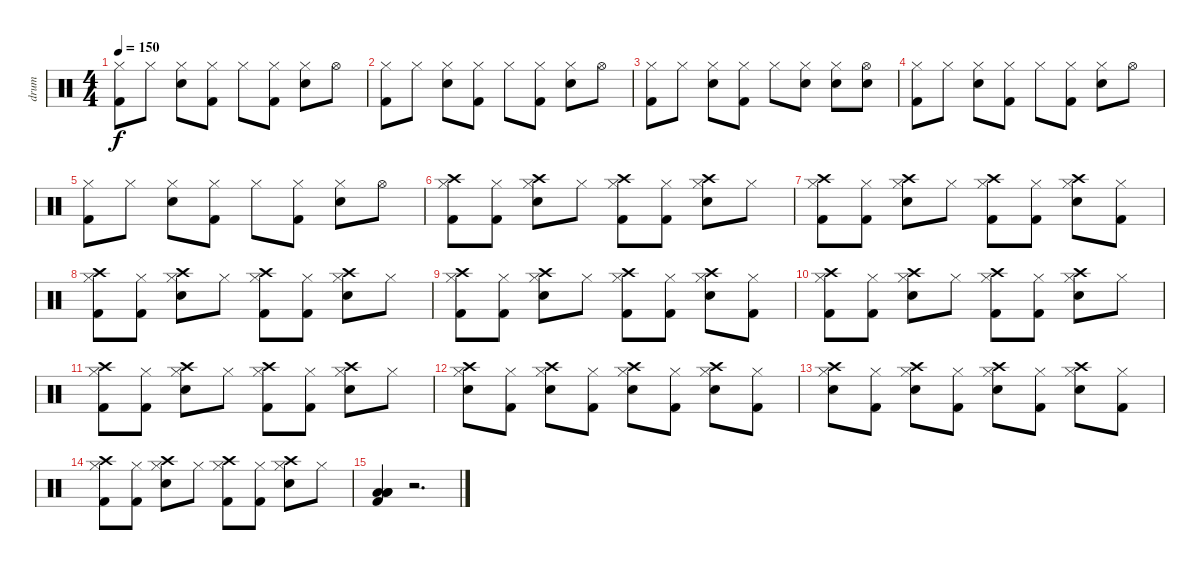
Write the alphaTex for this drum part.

\track ("drum" "drum") {instrument percussion}
\staff {score}
\articulation defaults
\ts (4 4)
\tempo 150
\clef neutral
\ks c
("Hi-Hat (closed)" "Kick (hit) 2").8{dy f} "Hi-Hat (closed)".8 ("Hi-Hat (closed)" "Electric Snare (hit)").8 ("Hi-Hat (closed)" "Kick (hit) 2").8 "Hi-Hat (closed)".8 ("Hi-Hat (closed)" "Kick (hit) 2").8 ("Hi-Hat (closed)" "Electric Snare (hit)").8 "Hi-Hat (open)".8 |
("Hi-Hat (closed)" "Kick (hit) 2").8 "Hi-Hat (closed)".8 ("Hi-Hat (closed)" "Electric Snare (hit)").8 ("Hi-Hat (closed)" "Kick (hit) 2").8 "Hi-Hat (closed)".8 ("Hi-Hat (closed)" "Kick (hit) 2").8 ("Hi-Hat (closed)" "Electric Snare (hit)").8 "Hi-Hat (open)".8 |
("Hi-Hat (closed)" "Kick (hit) 2").8 "Hi-Hat (closed)".8 ("Hi-Hat (closed)" "Electric Snare (hit)").8 ("Hi-Hat (closed)" "Kick (hit) 2").8 "Hi-Hat (closed)".8 ("Hi-Hat (closed)" "Electric Snare (hit)").8 ("Hi-Hat (closed)" "Electric Snare (hit)").8 ("Hi-Hat (open)" "Electric Snare (hit)").8 |
("Hi-Hat (closed)" "Kick (hit) 2").8 "Hi-Hat (closed)".8 ("Hi-Hat (closed)" "Electric Snare (hit)").8 ("Hi-Hat (closed)" "Kick (hit) 2").8 "Hi-Hat (closed)".8 ("Hi-Hat (closed)" "Kick (hit) 2").8 ("Hi-Hat (closed)" "Electric Snare (hit)").8 "Hi-Hat (open)".8 |
("Hi-Hat (closed)" "Kick (hit) 2").8 "Hi-Hat (closed)".8 ("Hi-Hat (closed)" "Electric Snare (hit)").8 ("Hi-Hat (closed)" "Kick (hit) 2").8 "Hi-Hat (closed)".8 ("Hi-Hat (closed)" "Kick (hit) 2").8 ("Hi-Hat (closed)" "Electric Snare (hit)").8 "Hi-Hat (open)".8 |
("Crash high (hit)" "Hi-Hat (closed)" "Kick (hit) 2").8 ("Hi-Hat (closed)" "Kick (hit) 2").8 ("Crash high (hit)" "Hi-Hat (closed)" "Electric Snare (hit)").8 "Hi-Hat (closed)".8 ("Crash high (hit)" "Hi-Hat (closed)" "Kick (hit) 2").8 ("Hi-Hat (closed)" "Kick (hit) 2").8 ("Crash high (hit)" "Hi-Hat (closed)" "Electric Snare (hit)").8 "Hi-Hat (closed)".8 |
("Crash high (hit)" "Hi-Hat (closed)" "Kick (hit) 2").8 ("Hi-Hat (closed)" "Kick (hit) 2").8 ("Crash high (hit)" "Hi-Hat (closed)" "Electric Snare (hit)").8 "Hi-Hat (closed)".8 ("Crash high (hit)" "Hi-Hat (closed)" "Kick (hit) 2").8 ("Hi-Hat (closed)" "Kick (hit) 2").8 ("Crash high (hit)" "Hi-Hat (closed)" "Electric Snare (hit)").8 ("Hi-Hat (closed)" "Kick (hit) 2").8 |
("Crash high (hit)" "Hi-Hat (closed)" "Kick (hit) 2").8 ("Hi-Hat (closed)" "Kick (hit) 2").8 ("Crash high (hit)" "Hi-Hat (closed)" "Electric Snare (hit)").8 "Hi-Hat (closed)".8 ("Crash high (hit)" "Hi-Hat (closed)" "Kick (hit) 2").8 ("Hi-Hat (closed)" "Kick (hit) 2").8 ("Crash high (hit)" "Hi-Hat (closed)" "Electric Snare (hit)").8 "Hi-Hat (closed)".8 |
("Crash high (hit)" "Hi-Hat (closed)" "Kick (hit) 2").8 ("Hi-Hat (closed)" "Kick (hit) 2").8 ("Crash high (hit)" "Hi-Hat (closed)" "Electric Snare (hit)").8 "Hi-Hat (closed)".8 ("Crash high (hit)" "Hi-Hat (closed)" "Kick (hit) 2").8 ("Hi-Hat (closed)" "Kick (hit) 2").8 ("Crash high (hit)" "Hi-Hat (closed)" "Electric Snare (hit)").8 ("Hi-Hat (closed)" "Kick (hit) 2").8 |
("Crash high (hit)" "Hi-Hat (closed)" "Kick (hit) 2").8 ("Hi-Hat (closed)" "Kick (hit) 2").8 ("Crash high (hit)" "Hi-Hat (closed)" "Electric Snare (hit)").8 "Hi-Hat (closed)".8 ("Crash high (hit)" "Hi-Hat (closed)" "Kick (hit) 2").8 ("Hi-Hat (closed)" "Kick (hit) 2").8 ("Crash high (hit)" "Hi-Hat (closed)" "Electric Snare (hit)").8 "Hi-Hat (closed)".8 |
("Crash high (hit)" "Hi-Hat (closed)" "Kick (hit) 2").8 ("Hi-Hat (closed)" "Kick (hit) 2").8 ("Crash high (hit)" "Hi-Hat (closed)" "Electric Snare (hit)").8 "Hi-Hat (closed)".8 ("Crash high (hit)" "Hi-Hat (closed)" "Kick (hit) 2").8 ("Hi-Hat (closed)" "Kick (hit) 2").8 ("Crash high (hit)" "Hi-Hat (closed)" "Electric Snare (hit)").8 "Hi-Hat (closed)".8 |
("Crash high (hit)" "Hi-Hat (closed)" "Electric Snare (hit)").8 ("Hi-Hat (closed)" "Kick (hit) 2").8 ("Crash high (hit)" "Hi-Hat (closed)" "Electric Snare (hit)").8 ("Hi-Hat (closed)" "Kick (hit) 2").8 ("Crash high (hit)" "Hi-Hat (closed)" "Electric Snare (hit)").8 ("Hi-Hat (closed)" "Kick (hit) 2").8 ("Crash high (hit)" "Hi-Hat (closed)" "Electric Snare (hit)").8 ("Hi-Hat (closed)" "Kick (hit) 2").8 |
("Crash high (hit)" "Hi-Hat (closed)" "Electric Snare (hit)").8 ("Hi-Hat (closed)" "Kick (hit) 2").8 ("Crash high (hit)" "Hi-Hat (closed)" "Electric Snare (hit)").8 ("Hi-Hat (closed)" "Kick (hit) 2").8 ("Crash high (hit)" "Hi-Hat (closed)" "Electric Snare (hit)").8 ("Hi-Hat (closed)" "Kick (hit) 2").8 ("Crash high (hit)" "Hi-Hat (closed)" "Electric Snare (hit)").8 ("Hi-Hat (closed)" "Kick (hit) 2").8 |
("Crash high (hit)" "Hi-Hat (closed)" "Kick (hit) 2").8 ("Hi-Hat (closed)" "Kick (hit) 2").8 ("Crash high (hit)" "Hi-Hat (closed)" "Electric Snare (hit)").8 "Hi-Hat (closed)".8 ("Crash high (hit)" "Hi-Hat (closed)" "Kick (hit) 2").8 ("Hi-Hat (closed)" "Kick (hit) 2").8 ("Crash high (hit)" "Hi-Hat (closed)" "Electric Snare (hit)").8 "Hi-Hat (closed)".8 |
("Low Floor Tom (hit)" "Low Floor Tom (hit)" "Low Floor Tom (hit)" "Kick (hit) 2").4 r.2{d}
